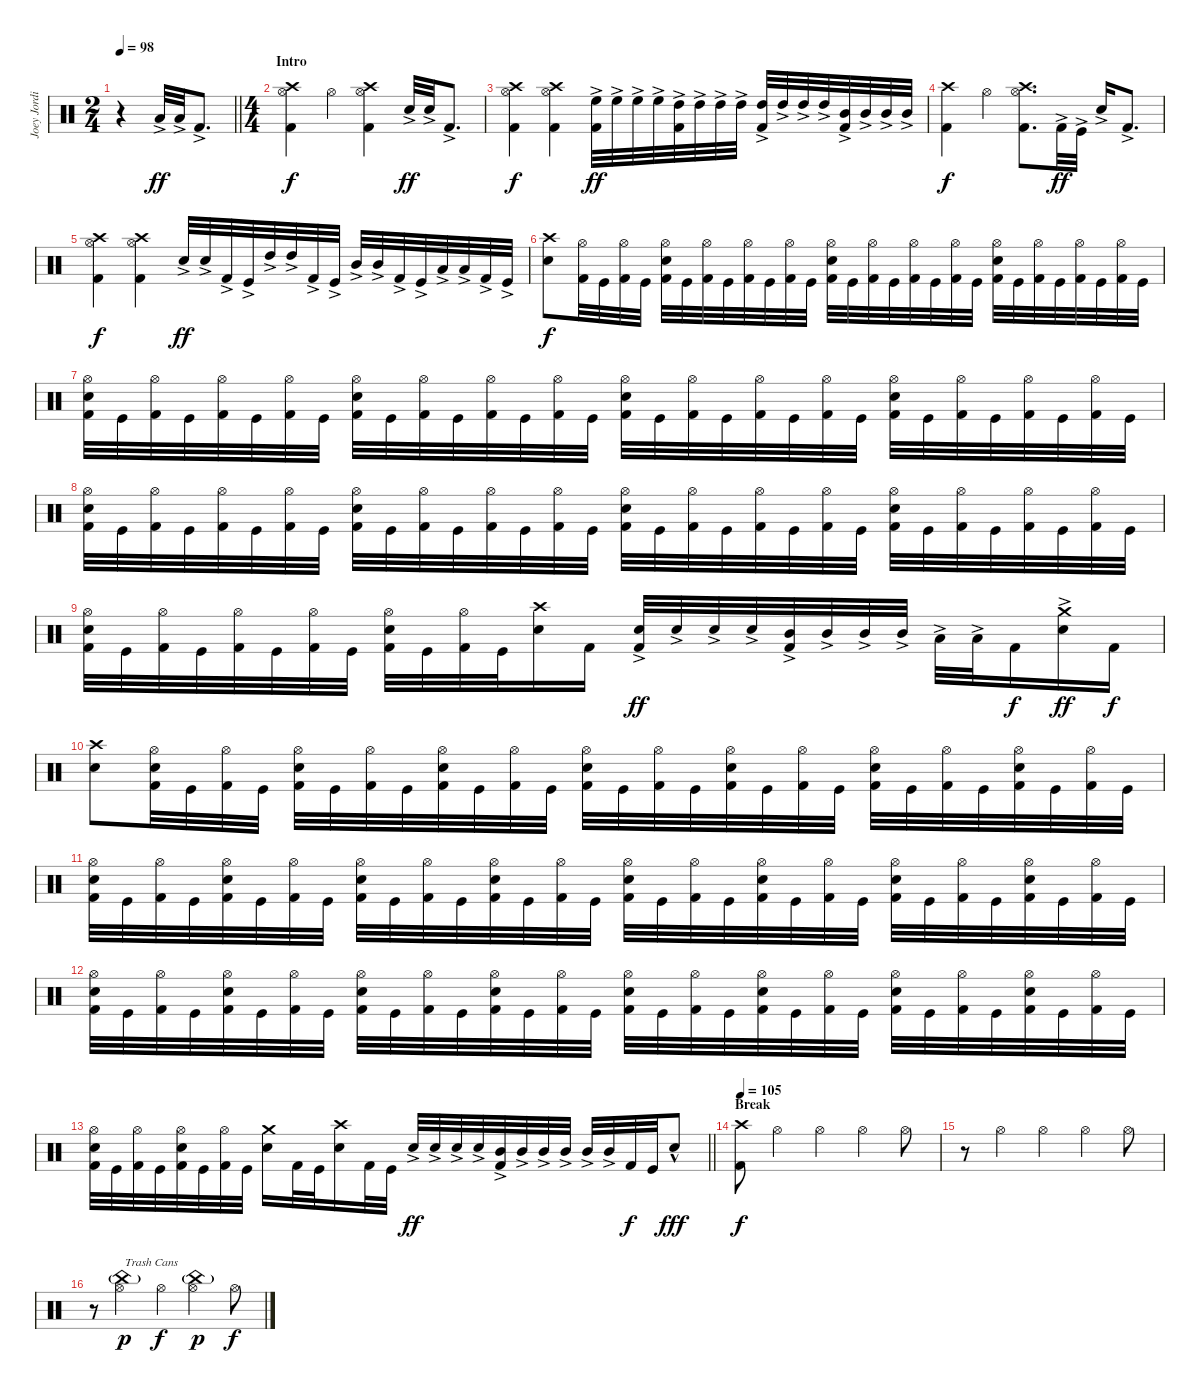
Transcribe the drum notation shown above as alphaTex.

\track ("Joey Jordinson (Drums)" "Joey Jordi") {instrument percussion}
\staff {score}
\articulation defaults
\ts (2 4)
\tempo 98
\clef neutral
\barLineRight lightlight
\ks c
r.4{dy ff} "Low Tom (hit)"{ac}.32 "Low Tom (hit)"{ac}.32 "Kick (hit) 2"{ac}.8{d} |
\ts (4 4)
\section ("" "Intro")
("Crash high (hit)" "Hi-Hat (open)" "Kick (hit) 2").4{dy f} "Hi-Hat (open)".4 ("Crash high (hit)" "Hi-Hat (open)" "Kick (hit) 2").4 "Electric Snare (hit)"{ac}.32{dy ff} "Electric Snare (hit)"{ac}.32 "Kick (hit) 2"{ac}.8{d} |
("Crash high (hit)" "Hi-Hat (open)" "Kick (hit) 2").4{dy f} ("Crash high (hit)" "Hi-Hat (open)" "Kick (hit) 2").4 ("High Floor Tom (hit)"{ac} "Kick (hit) 2").32{dy ff} "High Floor Tom (hit)"{ac}.32 "High Floor Tom (hit)"{ac}.32 "High Floor Tom (hit)"{ac}.32 ("High Tom (hit)"{ac} "Kick (hit) 2").32 "High Tom (hit)"{ac}.32 "High Tom (hit)"{ac}.32 "High Tom (hit)"{ac}.32 ("High Tom (hit)"{ac} "Kick (hit) 2").32 "High Tom (hit)"{ac}.32 "High Tom (hit)"{ac}.32 "High Tom (hit)"{ac}.32 ("Mid Tom (hit)"{ac} "Kick (hit) 2").32 "Mid Tom (hit)"{ac}.32 "Mid Tom (hit)"{ac}.32 "Mid Tom (hit)"{ac}.32 |
("Crash high (hit)" "Kick (hit) 2").4{dy f} "Hi-Hat (open)".4 ("Crash high (hit)" "Hi-Hat (open)" "Kick (hit) 2").8{d} "Kick (hit) 2"{ac}.32{dy ff} "Kick (hit)"{ac}.32 "Electric Snare (hit)"{ac}.16 "Kick (hit) 2"{ac}.8{d} |
("Crash high (hit)" "Hi-Hat (open)" "Kick (hit) 2").4{dy f} ("Crash high (hit)" "Hi-Hat (open)" "Kick (hit) 2").4 "Electric Snare (hit)"{ac}.32{dy ff} "Electric Snare (hit)"{ac}.32 "Kick (hit) 2"{ac}.32 "Kick (hit)"{ac}.32 "High Tom (hit)"{ac}.32 "High Tom (hit)"{ac}.32 "Kick (hit) 2"{ac}.32 "Kick (hit)"{ac}.32 "Mid Tom (hit)"{ac}.32 "Mid Tom (hit)"{ac}.32 "Kick (hit) 2"{ac}.32 "Kick (hit)"{ac}.32 "Low Tom (hit)"{ac}.32 "Low Tom (hit)"{ac}.32 "Kick (hit) 2"{ac}.32 "Kick (hit)"{ac}.32 |
("Crash high (hit)" "Electric Snare (hit)").8{dy f} ("Hi-Hat (open)" "Kick (hit) 2").32 "Kick (hit)".32 ("Hi-Hat (open)" "Kick (hit) 2").32 "Kick (hit)".32 ("Hi-Hat (open)" "Electric Snare (hit)" "Kick (hit) 2").32 "Kick (hit)".32 ("Hi-Hat (open)" "Kick (hit) 2").32 "Kick (hit)".32 ("Hi-Hat (open)" "Kick (hit) 2").32 "Kick (hit)".32 ("Hi-Hat (open)" "Kick (hit) 2").32 "Kick (hit)".32 ("Hi-Hat (open)" "Electric Snare (hit)" "Kick (hit) 2").32 "Kick (hit)".32 ("Hi-Hat (open)" "Kick (hit) 2").32 "Kick (hit)".32 ("Hi-Hat (open)" "Kick (hit) 2").32 "Kick (hit)".32 ("Hi-Hat (open)" "Kick (hit) 2").32 "Kick (hit)".32 ("Hi-Hat (open)" "Electric Snare (hit)" "Kick (hit) 2").32 "Kick (hit)".32 ("Hi-Hat (open)" "Kick (hit) 2").32 "Kick (hit)".32 ("Hi-Hat (open)" "Kick (hit) 2").32 "Kick (hit)".32 ("Hi-Hat (open)" "Kick (hit) 2").32 "Kick (hit)".32 |
("Hi-Hat (open)" "Electric Snare (hit)" "Kick (hit) 2").32 "Kick (hit)".32 ("Hi-Hat (open)" "Kick (hit) 2").32 "Kick (hit)".32 ("Hi-Hat (open)" "Kick (hit) 2").32 "Kick (hit)".32 ("Hi-Hat (open)" "Kick (hit) 2").32 "Kick (hit)".32 ("Hi-Hat (open)" "Electric Snare (hit)" "Kick (hit) 2").32 "Kick (hit)".32 ("Hi-Hat (open)" "Kick (hit) 2").32 "Kick (hit)".32 ("Hi-Hat (open)" "Kick (hit) 2").32 "Kick (hit)".32 ("Hi-Hat (open)" "Kick (hit) 2").32 "Kick (hit)".32 ("Hi-Hat (open)" "Electric Snare (hit)" "Kick (hit) 2").32 "Kick (hit)".32 ("Hi-Hat (open)" "Kick (hit) 2").32 "Kick (hit)".32 ("Hi-Hat (open)" "Kick (hit) 2").32 "Kick (hit)".32 ("Hi-Hat (open)" "Kick (hit) 2").32 "Kick (hit)".32 ("Hi-Hat (open)" "Electric Snare (hit)" "Kick (hit) 2").32 "Kick (hit)".32 ("Hi-Hat (open)" "Kick (hit) 2").32 "Kick (hit)".32 ("Hi-Hat (open)" "Kick (hit) 2").32 "Kick (hit)".32 ("Hi-Hat (open)" "Kick (hit) 2").32 "Kick (hit)".32 |
("Hi-Hat (open)" "Electric Snare (hit)" "Kick (hit) 2").32 "Kick (hit)".32 ("Hi-Hat (open)" "Kick (hit) 2").32 "Kick (hit)".32 ("Hi-Hat (open)" "Kick (hit) 2").32 "Kick (hit)".32 ("Hi-Hat (open)" "Kick (hit) 2").32 "Kick (hit)".32 ("Hi-Hat (open)" "Electric Snare (hit)" "Kick (hit) 2").32 "Kick (hit)".32 ("Hi-Hat (open)" "Kick (hit) 2").32 "Kick (hit)".32 ("Hi-Hat (open)" "Kick (hit) 2").32 "Kick (hit)".32 ("Hi-Hat (open)" "Kick (hit) 2").32 "Kick (hit)".32 ("Hi-Hat (open)" "Electric Snare (hit)" "Kick (hit) 2").32 "Kick (hit)".32 ("Hi-Hat (open)" "Kick (hit) 2").32 "Kick (hit)".32 ("Hi-Hat (open)" "Kick (hit) 2").32 "Kick (hit)".32 ("Hi-Hat (open)" "Kick (hit) 2").32 "Kick (hit)".32 ("Hi-Hat (open)" "Electric Snare (hit)" "Kick (hit) 2").32 "Kick (hit)".32 ("Hi-Hat (open)" "Kick (hit) 2").32 "Kick (hit)".32 ("Hi-Hat (open)" "Kick (hit) 2").32 "Kick (hit)".32 ("Hi-Hat (open)" "Kick (hit) 2").32 "Kick (hit)".32 |
("Hi-Hat (open)" "Electric Snare (hit)" "Kick (hit) 2").32 "Kick (hit)".32 ("Hi-Hat (open)" "Kick (hit) 2").32 "Kick (hit)".32 ("Hi-Hat (open)" "Kick (hit) 2").32 "Kick (hit)".32 ("Hi-Hat (open)" "Kick (hit) 2").32 "Kick (hit)".32 ("Hi-Hat (open)" "Electric Snare (hit)" "Kick (hit) 2").32 "Kick (hit)".32 ("Hi-Hat (open)" "Kick (hit) 2").32 "Kick (hit)".32 ("Crash high (hit)" "Electric Snare (hit)").16 "Kick (hit) 2".16 ("Electric Snare (hit)"{ac} "Kick (hit) 2").32{dy ff} "Electric Snare (hit)"{ac}.32 "Electric Snare (hit)"{ac}.32 "Electric Snare (hit)"{ac}.32 ("Mid Tom (hit)"{ac} "Kick (hit) 2").32 "Mid Tom (hit)"{ac}.32 "Mid Tom (hit)"{ac}.32 "Mid Tom (hit)"{ac}.32 "Low Tom (hit)"{ac}.32 "Low Tom (hit)"{ac}.32 "Kick (hit) 2".16{dy f} ("Crash medium (hit)" "Electric Snare (hit)"{ac}).16{dy ff} "Kick (hit) 2".16{dy f} |
("Crash high (hit)" "Electric Snare (hit)").8 ("Hi-Hat (open)" "Electric Snare (hit)" "Kick (hit) 2").32 "Kick (hit)".32 ("Hi-Hat (open)" "Kick (hit) 2").32 "Kick (hit)".32 ("Hi-Hat (open)" "Electric Snare (hit)" "Kick (hit) 2").32 "Kick (hit)".32 ("Hi-Hat (open)" "Kick (hit) 2").32 "Kick (hit)".32 ("Hi-Hat (open)" "Electric Snare (hit)" "Kick (hit) 2").32 "Kick (hit)".32 ("Hi-Hat (open)" "Kick (hit) 2").32 "Kick (hit)".32 ("Hi-Hat (open)" "Electric Snare (hit)" "Kick (hit) 2").32 "Kick (hit)".32 ("Hi-Hat (open)" "Kick (hit) 2").32 "Kick (hit)".32 ("Hi-Hat (open)" "Electric Snare (hit)" "Kick (hit) 2").32 "Kick (hit)".32 ("Hi-Hat (open)" "Kick (hit) 2").32 "Kick (hit)".32 ("Hi-Hat (open)" "Electric Snare (hit)" "Kick (hit) 2").32 "Kick (hit)".32 ("Hi-Hat (open)" "Kick (hit) 2").32 "Kick (hit)".32 ("Hi-Hat (open)" "Electric Snare (hit)" "Kick (hit) 2").32 "Kick (hit)".32 ("Hi-Hat (open)" "Kick (hit) 2").32 "Kick (hit)".32 |
("Hi-Hat (open)" "Electric Snare (hit)" "Kick (hit) 2").32 "Kick (hit)".32 ("Hi-Hat (open)" "Kick (hit) 2").32 "Kick (hit)".32 ("Hi-Hat (open)" "Electric Snare (hit)" "Kick (hit) 2").32 "Kick (hit)".32 ("Hi-Hat (open)" "Kick (hit) 2").32 "Kick (hit)".32 ("Hi-Hat (open)" "Electric Snare (hit)" "Kick (hit) 2").32 "Kick (hit)".32 ("Hi-Hat (open)" "Kick (hit) 2").32 "Kick (hit)".32 ("Hi-Hat (open)" "Electric Snare (hit)" "Kick (hit) 2").32 "Kick (hit)".32 ("Hi-Hat (open)" "Kick (hit) 2").32 "Kick (hit)".32 ("Hi-Hat (open)" "Electric Snare (hit)" "Kick (hit) 2").32 "Kick (hit)".32 ("Hi-Hat (open)" "Kick (hit) 2").32 "Kick (hit)".32 ("Hi-Hat (open)" "Electric Snare (hit)" "Kick (hit) 2").32 "Kick (hit)".32 ("Hi-Hat (open)" "Kick (hit) 2").32 "Kick (hit)".32 ("Hi-Hat (open)" "Electric Snare (hit)" "Kick (hit) 2").32 "Kick (hit)".32 ("Hi-Hat (open)" "Kick (hit) 2").32 "Kick (hit)".32 ("Hi-Hat (open)" "Electric Snare (hit)" "Kick (hit) 2").32 "Kick (hit)".32 ("Hi-Hat (open)" "Kick (hit) 2").32 "Kick (hit)".32 |
("Hi-Hat (open)" "Electric Snare (hit)" "Kick (hit) 2").32 "Kick (hit)".32 ("Hi-Hat (open)" "Kick (hit) 2").32 "Kick (hit)".32 ("Hi-Hat (open)" "Electric Snare (hit)" "Kick (hit) 2").32 "Kick (hit)".32 ("Hi-Hat (open)" "Kick (hit) 2").32 "Kick (hit)".32 ("Hi-Hat (open)" "Electric Snare (hit)" "Kick (hit) 2").32 "Kick (hit)".32 ("Hi-Hat (open)" "Kick (hit) 2").32 "Kick (hit)".32 ("Hi-Hat (open)" "Electric Snare (hit)" "Kick (hit) 2").32 "Kick (hit)".32 ("Hi-Hat (open)" "Kick (hit) 2").32 "Kick (hit)".32 ("Hi-Hat (open)" "Electric Snare (hit)" "Kick (hit) 2").32 "Kick (hit)".32 ("Hi-Hat (open)" "Kick (hit) 2").32 "Kick (hit)".32 ("Hi-Hat (open)" "Electric Snare (hit)" "Kick (hit) 2").32 "Kick (hit)".32 ("Hi-Hat (open)" "Kick (hit) 2").32 "Kick (hit)".32 ("Hi-Hat (open)" "Electric Snare (hit)" "Kick (hit) 2").32 "Kick (hit)".32 ("Hi-Hat (open)" "Kick (hit) 2").32 "Kick (hit)".32 ("Hi-Hat (open)" "Electric Snare (hit)" "Kick (hit) 2").32 "Kick (hit)".32 ("Hi-Hat (open)" "Kick (hit) 2").32 "Kick (hit)".32 |
\barLineRight lightlight
("Hi-Hat (open)" "Electric Snare (hit)" "Kick (hit) 2").32 "Kick (hit)".32 ("Hi-Hat (open)" "Kick (hit) 2").32 "Kick (hit)".32 ("Hi-Hat (open)" "Electric Snare (hit)" "Kick (hit) 2").32 "Kick (hit)".32 ("Hi-Hat (open)" "Kick (hit) 2").32 "Kick (hit)".32 ("Crash medium (hit)" "Electric Snare (hit)").16 "Kick (hit) 2".32 "Kick (hit)".32 ("Crash high (hit)" "Electric Snare (hit)").16 "Kick (hit) 2".32 "Kick (hit)".32 "Electric Snare (hit)"{ac}.32{dy ff} "Electric Snare (hit)"{ac}.32 "Electric Snare (hit)"{ac}.32 "Electric Snare (hit)"{ac}.32 ("Mid Tom (hit)"{ac} "Kick (hit) 2").32 "Mid Tom (hit)"{ac}.32 "Mid Tom (hit)"{ac}.32 "Mid Tom (hit)"{ac}.32 "Mid Tom (hit)"{ac}.32 "Mid Tom (hit)"{ac}.32 "Kick (hit) 2".32{dy f} "Kick (hit)".32 "Electric Snare (hit)"{hac}.8{dy fff} |
\section ("" "Break")
\tempo 105
("Crash high (hit)" "Kick (hit) 2").8{dy f} "Hi-Hat (open)".4 "Hi-Hat (open)".4 "Hi-Hat (open)".4 "Hi-Hat (open)".8 |
r.8 "Hi-Hat (open)".4 "Hi-Hat (open)".4 "Hi-Hat (open)".4 "Hi-Hat (open)".8 |
r.8 ("China (hit)"{g} "Hi-Hat (open)").4{txt "Trash Cans" dy p} "Hi-Hat (open)".4{dy f} ("China (hit)"{g} "Hi-Hat (open)").4{dy p} "Hi-Hat (open)".8{dy f}
